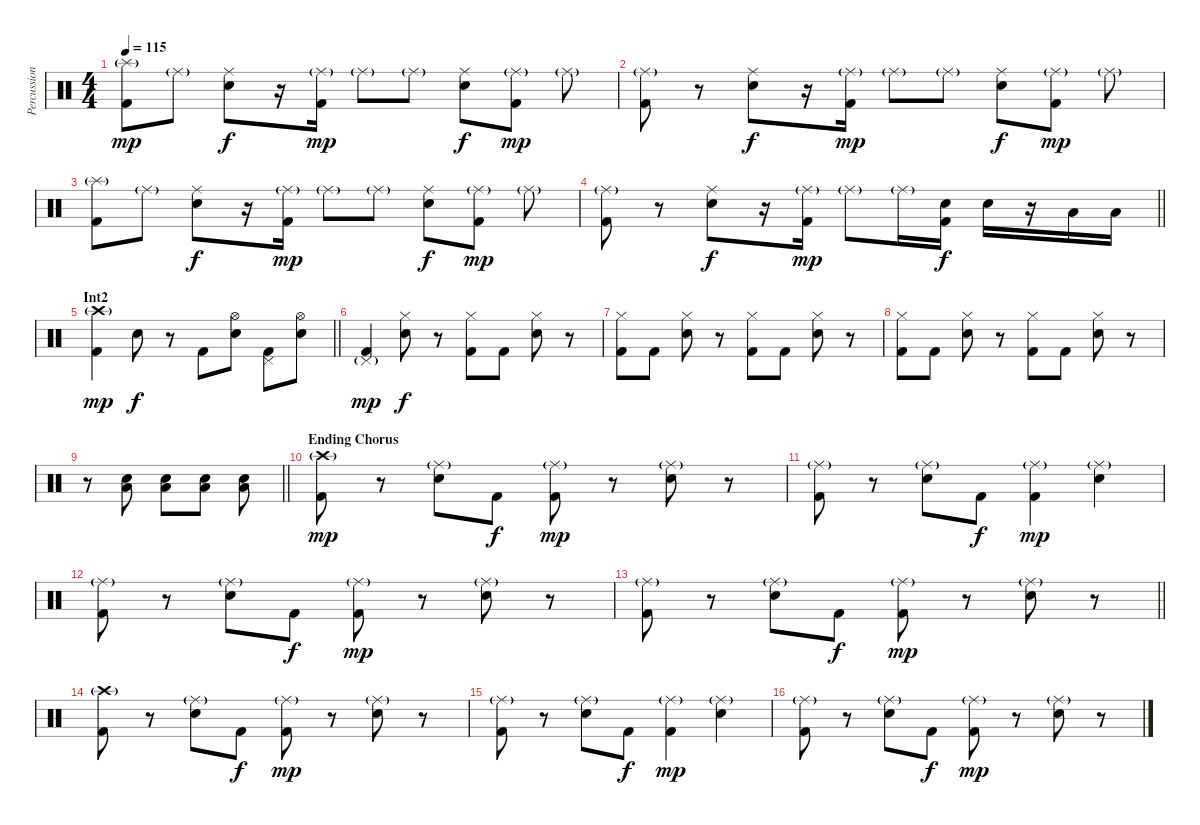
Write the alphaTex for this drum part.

\track ("Percussion" "Percussion") {instrument percussion}
\staff {score}
\articulation defaults
\ts (4 4)
\tempo 115
\clef neutral
\ks c
("Splash (hit)"{g} "Kick (hit) 2").8{dy mp} "Ride (middle)"{g}.8 ("Ride (middle)" "Electric Snare (hit)").8{dy f} r.16 ("Ride (middle)"{g} "Kick (hit) 2").16{dy mp} "Ride (middle)"{g}.8 "Ride (middle)"{g}.8 ("Ride (middle)" "Electric Snare (hit)").8{dy f} ("Ride (middle)"{g} "Kick (hit) 2").8{dy mp} "Ride (middle)"{g}.8 |
("Ride (middle)"{g} "Kick (hit) 2").8 r.8 ("Ride (middle)" "Electric Snare (hit)").8{dy f} r.16 ("Ride (middle)"{g} "Kick (hit) 2").16{dy mp} "Ride (middle)"{g}.8 "Ride (middle)"{g}.8 ("Ride (middle)" "Electric Snare (hit)").8{dy f} ("Ride (middle)"{g} "Kick (hit) 2").8{dy mp} "Ride (middle)"{g}.8 |
("Splash (hit)"{g} "Kick (hit) 2").8 "Ride (middle)"{g}.8 ("Ride (middle)" "Electric Snare (hit)").8{dy f} r.16 ("Ride (middle)"{g} "Kick (hit) 2").16{dy mp} "Ride (middle)"{g}.8 "Ride (middle)"{g}.8 ("Ride (middle)" "Electric Snare (hit)").8{dy f} ("Ride (middle)"{g} "Kick (hit) 2").8{dy mp} "Ride (middle)"{g}.8 |
\barLineRight lightlight
("Ride (middle)"{g} "Kick (hit) 2").8 r.8 ("Ride (middle)" "Electric Snare (hit)").8{dy f} r.16 ("Ride (middle)"{g} "Kick (hit) 2").16{dy mp} "Ride (middle)"{g}.8 "Ride (middle)"{g}.16 ("Electric Snare (hit)" "Kick (hit) 2").16{dy f} "Electric Snare (hit)".16 r.16 "Low Tom (hit)".16 "Low Tom (hit)".16 |
\section ("" "Int2")
\barLineRight lightlight
("Crash high (hit)"{g} "Kick (hit) 2").4{dy mp} "Electric Snare (hit)".8{dy f} r.8 "Kick (hit) 2".8 ("Hi-Hat (open)" "Electric Snare (hit)").8 ("Pedal Hi-Hat (hit)" "Kick (hit) 2").8 ("Hi-Hat (open)" "Electric Snare (hit)").8 |
\section ("" "")
("Pedal Hi-Hat (hit)"{g} "Kick (hit) 2").4{dy mp} ("Hi-Hat (closed)" "Electric Snare (hit)").8{dy f} r.8 ("Hi-Hat (closed)" "Kick (hit) 2").8 "Kick (hit) 2".8 ("Hi-Hat (closed)" "Electric Snare (hit)").8 r.8 |
("Hi-Hat (closed)" "Kick (hit) 2").8 "Kick (hit) 2".8 ("Hi-Hat (closed)" "Electric Snare (hit)").8 r.8 ("Hi-Hat (closed)" "Kick (hit) 2").8 "Kick (hit) 2".8 ("Hi-Hat (closed)" "Electric Snare (hit)").8 r.8 |
("Hi-Hat (closed)" "Kick (hit) 2").8 "Kick (hit) 2".8 ("Hi-Hat (closed)" "Electric Snare (hit)").8 r.8 ("Hi-Hat (closed)" "Kick (hit) 2").8 "Kick (hit) 2".8 ("Hi-Hat (closed)" "Electric Snare (hit)").8 r.8 |
\barLineRight lightlight
r.8 ("Electric Snare (hit)" "Low Floor Tom (hit)").8 ("Electric Snare (hit)" "Low Floor Tom (hit)").8 ("Electric Snare (hit)" "Low Floor Tom (hit)").8 ("Electric Snare (hit)" "Low Floor Tom (hit)").8 |
\section ("" "Ending Chorus")
("Crash high (hit)"{g} "Kick (hit) 2").8{dy mp} r.8 ("Ride (middle)"{g} "Electric Snare (hit)").8 "Kick (hit) 2".8{dy f} ("Ride (middle)"{g} "Kick (hit) 2").8{dy mp} r.8 ("Ride (middle)"{g} "Electric Snare (hit)").8 r.8 |
("Ride (middle)"{g} "Kick (hit) 2").8 r.8 ("Ride (middle)"{g} "Electric Snare (hit)").8 "Kick (hit) 2".8{dy f} ("Ride (middle)"{g} "Kick (hit) 2").4{dy mp} ("Ride (middle)"{g} "Electric Snare (hit)").4 |
("Ride (middle)"{g} "Kick (hit) 2").8 r.8 ("Ride (middle)"{g} "Electric Snare (hit)").8 "Kick (hit) 2".8{dy f} ("Ride (middle)"{g} "Kick (hit) 2").8{dy mp} r.8 ("Ride (middle)"{g} "Electric Snare (hit)").8 r.8 |
\barLineRight lightlight
("Ride (middle)"{g} "Kick (hit) 2").8 r.8 ("Ride (middle)"{g} "Electric Snare (hit)").8 "Kick (hit) 2".8{dy f} ("Ride (middle)"{g} "Kick (hit) 2").8{dy mp} r.8 ("Ride (middle)"{g} "Electric Snare (hit)").8 r.8 |
("Crash high (hit)"{g} "Kick (hit) 2").8 r.8 ("Ride (middle)"{g} "Electric Snare (hit)").8 "Kick (hit) 2".8{dy f} ("Ride (middle)"{g} "Kick (hit) 2").8{dy mp} r.8 ("Ride (middle)"{g} "Electric Snare (hit)").8 r.8 |
("Ride (middle)"{g} "Kick (hit) 2").8 r.8 ("Ride (middle)"{g} "Electric Snare (hit)").8 "Kick (hit) 2".8{dy f} ("Ride (middle)"{g} "Kick (hit) 2").4{dy mp} ("Ride (middle)"{g} "Electric Snare (hit)").4 |
("Ride (middle)"{g} "Kick (hit) 2").8 r.8 ("Ride (middle)"{g} "Electric Snare (hit)").8 "Kick (hit) 2".8{dy f} ("Ride (middle)"{g} "Kick (hit) 2").8{dy mp} r.8 ("Ride (middle)"{g} "Electric Snare (hit)").8 r.8
